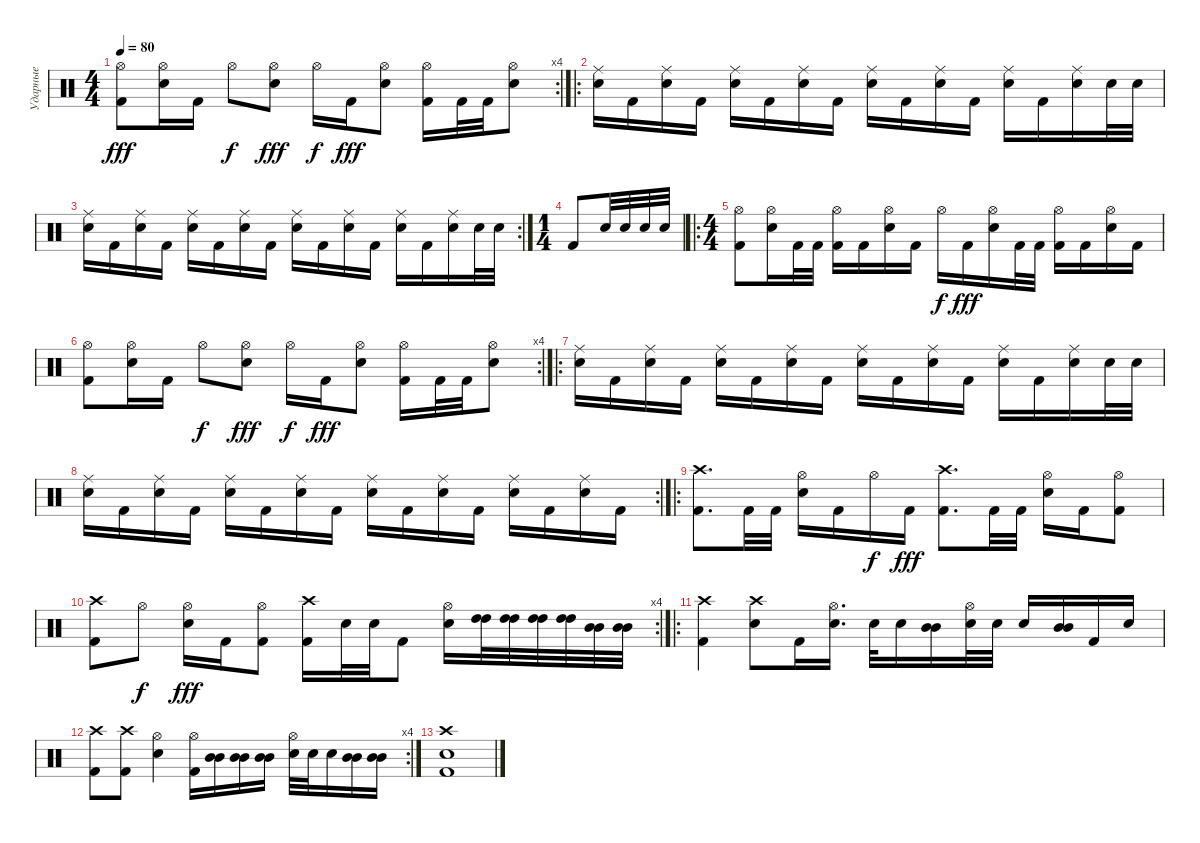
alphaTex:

\track ("Ударные" "Ударные") {instrument percussion}
\staff {score}
\articulation defaults
\rc 4
\ts (4 4)
\tempo 80
\clef neutral
\ks c
("Hi-Hat (open)" "Kick (hit) 2").8{dy fff} ("Hi-Hat (open)" "Electric Snare (hit)").16 "Kick (hit) 2".16 "Hi-Hat (open)".8{dy f} ("Hi-Hat (open)" "Electric Snare (hit)").8{dy fff} "Hi-Hat (open)".16{dy f} "Kick (hit) 2".16{dy fff} ("Hi-Hat (open)" "Electric Snare (hit)").8 ("Hi-Hat (open)" "Kick (hit) 2").16 "Kick (hit) 2".32 "Kick (hit) 2".32 ("Hi-Hat (open)" "Electric Snare (hit)").8 |
\ro
("Ride (middle)" "Electric Snare (hit)").16 "Kick (hit) 2".16 ("Ride (middle)" "Electric Snare (hit)").16 "Kick (hit) 2".16 ("Ride (middle)" "Electric Snare (hit)").16 "Kick (hit) 2".16 ("Ride (middle)" "Electric Snare (hit)").16 "Kick (hit) 2".16 ("Ride (middle)" "Electric Snare (hit)").16 "Kick (hit) 2".16 ("Ride (middle)" "Electric Snare (hit)").16 "Kick (hit) 2".16 ("Ride (middle)" "Electric Snare (hit)").16 "Kick (hit) 2".16 ("Ride (middle)" "Electric Snare (hit)").16 "Electric Snare (hit)".32 "Electric Snare (hit)".32 |
\rc 2
("Ride (middle)" "Electric Snare (hit)").16 "Kick (hit) 2".16 ("Ride (middle)" "Electric Snare (hit)").16 "Kick (hit) 2".16 ("Ride (middle)" "Electric Snare (hit)").16 "Kick (hit) 2".16 ("Ride (middle)" "Electric Snare (hit)").16 "Kick (hit) 2".16 ("Ride (middle)" "Electric Snare (hit)").16 "Kick (hit) 2".16 ("Ride (middle)" "Electric Snare (hit)").16 "Kick (hit) 2".16 ("Ride (middle)" "Electric Snare (hit)").16 "Kick (hit) 2".16 ("Ride (middle)" "Electric Snare (hit)").16 "Electric Snare (hit)".32 "Electric Snare (hit)".32 |
\ts (1 4)
"Kick (hit) 2".8 "Electric Snare (hit)".32 "Electric Snare (hit)".32 "Electric Snare (hit)".32 "Electric Snare (hit)".32 |
\ro
\ts (4 4)
("Hi-Hat (open)" "Kick (hit) 2").8 ("Hi-Hat (open)" "Electric Snare (hit)").16 "Kick (hit) 2".32 "Kick (hit) 2".32 ("Hi-Hat (open)" "Kick (hit) 2").16 "Kick (hit) 2".16 ("Hi-Hat (open)" "Electric Snare (hit)").16 "Kick (hit) 2".16 "Hi-Hat (open)".16{dy f} "Kick (hit) 2".16{dy fff} ("Hi-Hat (open)" "Electric Snare (hit)").16 "Kick (hit) 2".32 "Kick (hit) 2".32 ("Hi-Hat (open)" "Kick (hit) 2").16 "Kick (hit) 2".16 ("Hi-Hat (open)" "Electric Snare (hit)").16 "Kick (hit) 2".16 |
\rc 4
("Hi-Hat (open)" "Kick (hit) 2").8 ("Hi-Hat (open)" "Electric Snare (hit)").16 "Kick (hit) 2".16 "Hi-Hat (open)".8{dy f} ("Hi-Hat (open)" "Electric Snare (hit)").8{dy fff} "Hi-Hat (open)".16{dy f} "Kick (hit) 2".16{dy fff} ("Hi-Hat (open)" "Electric Snare (hit)").8 ("Hi-Hat (open)" "Kick (hit) 2").16 "Kick (hit) 2".32 "Kick (hit) 2".32 ("Hi-Hat (open)" "Electric Snare (hit)").8 |
\ro
("Ride (middle)" "Electric Snare (hit)").16 "Kick (hit) 2".16 ("Ride (middle)" "Electric Snare (hit)").16 "Kick (hit) 2".16 ("Ride (middle)" "Electric Snare (hit)").16 "Kick (hit) 2".16 ("Ride (middle)" "Electric Snare (hit)").16 "Kick (hit) 2".16 ("Ride (middle)" "Electric Snare (hit)").16 "Kick (hit) 2".16 ("Ride (middle)" "Electric Snare (hit)").16 "Kick (hit) 2".16 ("Ride (middle)" "Electric Snare (hit)").16 "Kick (hit) 2".16 ("Ride (middle)" "Electric Snare (hit)").16 "Electric Snare (hit)".32 "Electric Snare (hit)".32 |
\rc 2
("Ride (middle)" "Electric Snare (hit)").16 "Kick (hit) 2".16 ("Ride (middle)" "Electric Snare (hit)").16 "Kick (hit) 2".16 ("Ride (middle)" "Electric Snare (hit)").16 "Kick (hit) 2".16 ("Ride (middle)" "Electric Snare (hit)").16 "Kick (hit) 2".16 ("Ride (middle)" "Electric Snare (hit)").16 "Kick (hit) 2".16 ("Ride (middle)" "Electric Snare (hit)").16 "Kick (hit) 2".16 ("Ride (middle)" "Electric Snare (hit)").16 "Kick (hit) 2".16 ("Ride (middle)" "Electric Snare (hit)").16 "Kick (hit) 2".16 |
\ro
("Crash high (hit)" "Kick (hit) 2").8{d} "Kick (hit) 2".32 "Kick (hit) 2".32 ("Hi-Hat (open)" "Electric Snare (hit)").16 "Kick (hit) 2".16 "Hi-Hat (open)".16{dy f} "Kick (hit) 2".16{dy fff} ("Crash high (hit)" "Kick (hit) 2").8{d} "Kick (hit) 2".32 "Kick (hit) 2".32 ("Hi-Hat (open)" "Electric Snare (hit)").16 "Kick (hit) 2".16 ("Hi-Hat (open)" "Kick (hit) 2").8 |
\rc 4
("Crash high (hit)" "Kick (hit) 2").8 "Hi-Hat (open)".8{dy f} ("Hi-Hat (open)" "Electric Snare (hit)").16{dy fff} "Kick (hit) 2".16 ("Hi-Hat (open)" "Kick (hit) 2").8 ("Crash high (hit)" "Kick (hit) 2").16 "Electric Snare (hit)".32 "Electric Snare (hit)".32 "Kick (hit) 2".8 ("Hi-Hat (open)" "Electric Snare (hit)").16 ("High Tom (hit)" "High Tom (hit)").32 ("High Tom (hit)" "High Tom (hit)").32 ("High Tom (hit)" "High Tom (hit)").32 ("High Tom (hit)" "High Tom (hit)").32 ("Mid Tom (hit)" "Mid Tom (hit)").32 ("Mid Tom (hit)" "Mid Tom (hit)").32 |
\ro
("Crash high (hit)" "Kick (hit) 2").4 ("Crash high (hit)" "Electric Snare (hit)").8 "Kick (hit) 2".16 ("Hi-Hat (open)" "Electric Snare (hit)").16{d} "Electric Snare (hit)".32 "Electric Snare (hit)".16 ("Mid Tom (hit)" "Mid Tom (hit)").16 ("Hi-Hat (open)" "Electric Snare (hit)").32 "Electric Snare (hit)".32 "Electric Snare (hit)".16 ("Mid Tom (hit)" "Mid Tom (hit)").16 "Kick (hit) 2".16 "Electric Snare (hit)".16 |
\rc 4
("Crash high (hit)" "Kick (hit) 2").8 ("Crash high (hit)" "Kick (hit) 2").8 ("Hi-Hat (open)" "Electric Snare (hit)").4 ("Hi-Hat (open)" "Kick (hit) 2").16 ("Mid Tom (hit)" "Mid Tom (hit)").16 ("Mid Tom (hit)" "Mid Tom (hit)").16 ("Mid Tom (hit)" "Mid Tom (hit)").16 ("Hi-Hat (open)" "Electric Snare (hit)").32 "Electric Snare (hit)".32 "Electric Snare (hit)".16 ("Mid Tom (hit)" "Mid Tom (hit)").16 ("Mid Tom (hit)" "Mid Tom (hit)").16 |
("Crash high (hit)" "Electric Snare (hit)" "Kick (hit) 2").1
